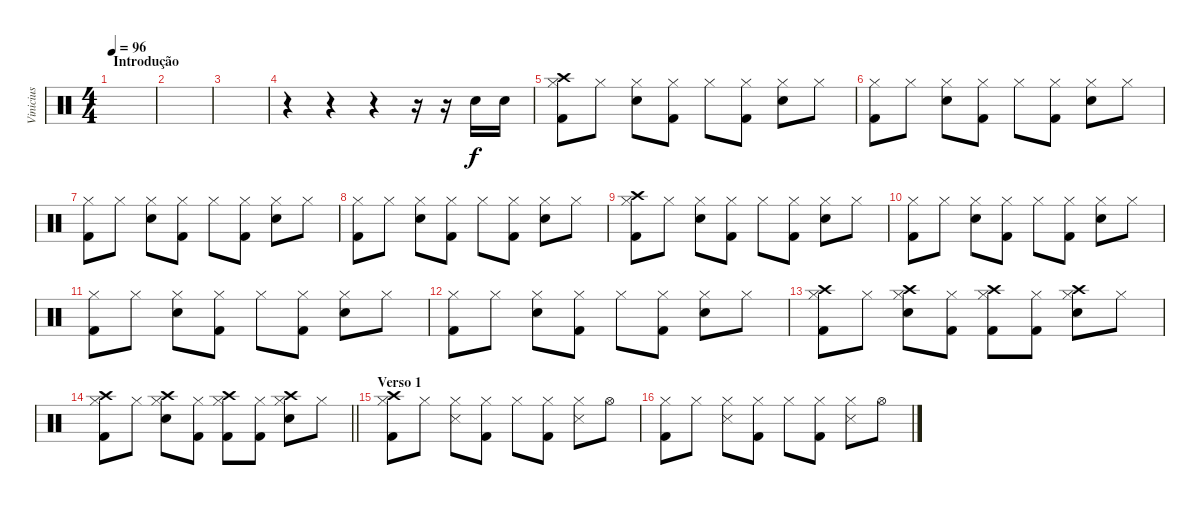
\track ("Vinicius" "Vinicius") {instrument percussion}
\staff {score}
\articulation defaults
\ts (4 4)
\section ("" "Introdução")
\tempo 96
\clef neutral
\ks c
|
|
|
r.4 r.4 r.4 r.16 r.16 "Snare (hit) 2".16 "Snare (hit) 2".16 |
("Kick (hit) 2" "Crash high (hit)" "Hi-Hat (closed)").8 "Hi-Hat (closed)".8 ("Snare (hit) 2" "Hi-Hat (closed)").8 ("Kick (hit) 2" "Hi-Hat (closed)").8 "Hi-Hat (closed)".8 ("Kick (hit) 2" "Hi-Hat (closed)").8 ("Snare (hit) 2" "Hi-Hat (closed)").8 "Hi-Hat (closed)".8 |
("Kick (hit) 2" "Hi-Hat (closed)").8 "Hi-Hat (closed)".8 ("Snare (hit) 2" "Hi-Hat (closed)").8 ("Kick (hit) 2" "Hi-Hat (closed)").8 "Hi-Hat (closed)".8 ("Kick (hit) 2" "Hi-Hat (closed)").8 ("Snare (hit) 2" "Hi-Hat (closed)").8 "Hi-Hat (closed)".8 |
("Kick (hit) 2" "Hi-Hat (closed)").8 "Hi-Hat (closed)".8 ("Snare (hit) 2" "Hi-Hat (closed)").8 ("Kick (hit) 2" "Hi-Hat (closed)").8 "Hi-Hat (closed)".8 ("Kick (hit) 2" "Hi-Hat (closed)").8 ("Snare (hit) 2" "Hi-Hat (closed)").8 "Hi-Hat (closed)".8 |
("Kick (hit) 2" "Hi-Hat (closed)").8 "Hi-Hat (closed)".8 ("Snare (hit) 2" "Hi-Hat (closed)").8 ("Kick (hit) 2" "Hi-Hat (closed)").8 "Hi-Hat (closed)".8 ("Kick (hit) 2" "Hi-Hat (closed)").8 ("Snare (hit) 2" "Hi-Hat (closed)").8 "Hi-Hat (closed)".8 |
("Kick (hit) 2" "Crash high (hit)" "Hi-Hat (closed)").8 "Hi-Hat (closed)".8 ("Snare (hit) 2" "Hi-Hat (closed)").8 ("Kick (hit) 2" "Hi-Hat (closed)").8 "Hi-Hat (closed)".8 ("Kick (hit) 2" "Hi-Hat (closed)").8 ("Snare (hit) 2" "Hi-Hat (closed)").8 "Hi-Hat (closed)".8 |
("Kick (hit) 2" "Hi-Hat (closed)").8 "Hi-Hat (closed)".8 ("Snare (hit) 2" "Hi-Hat (closed)").8 ("Kick (hit) 2" "Hi-Hat (closed)").8 "Hi-Hat (closed)".8 ("Kick (hit) 2" "Hi-Hat (closed)").8 ("Snare (hit) 2" "Hi-Hat (closed)").8 "Hi-Hat (closed)".8 |
("Kick (hit) 2" "Hi-Hat (closed)").8 "Hi-Hat (closed)".8 ("Snare (hit) 2" "Hi-Hat (closed)").8 ("Kick (hit) 2" "Hi-Hat (closed)").8 "Hi-Hat (closed)".8 ("Kick (hit) 2" "Hi-Hat (closed)").8 ("Snare (hit) 2" "Hi-Hat (closed)").8 "Hi-Hat (closed)".8 |
("Kick (hit) 2" "Hi-Hat (closed)").8 "Hi-Hat (closed)".8 ("Snare (hit) 2" "Hi-Hat (closed)").8 ("Kick (hit) 2" "Hi-Hat (closed)").8 "Hi-Hat (closed)".8 ("Kick (hit) 2" "Hi-Hat (closed)").8 ("Snare (hit) 2" "Hi-Hat (closed)").8 "Hi-Hat (closed)".8 |
("Kick (hit) 2" "Crash high (hit)" "Hi-Hat (closed)").8 "Hi-Hat (closed)".8 ("Snare (hit) 2" "Crash high (hit)" "Hi-Hat (closed)").8 ("Kick (hit) 2" "Hi-Hat (closed)").8 ("Kick (hit) 2" "Crash high (hit)" "Hi-Hat (closed)").8 ("Kick (hit) 2" "Hi-Hat (closed)").8 ("Snare (hit) 2" "Crash high (hit)" "Hi-Hat (closed)").8 "Hi-Hat (closed)".8 |
\barLineRight lightlight
("Kick (hit) 2" "Crash high (hit)" "Hi-Hat (closed)").8 "Hi-Hat (closed)".8 ("Snare (hit) 2" "Crash high (hit)" "Hi-Hat (closed)").8 ("Kick (hit) 2" "Hi-Hat (closed)").8 ("Kick (hit) 2" "Crash high (hit)" "Hi-Hat (closed)").8 ("Kick (hit) 2" "Hi-Hat (closed)").8 ("Snare (hit) 2" "Crash high (hit)" "Hi-Hat (closed)").8 "Hi-Hat (closed)".8 |
\section ("" "Verso 1")
("Kick (hit) 2" "Crash high (hit)" "Hi-Hat (closed)").8 "Hi-Hat (closed)".8 ("Snare (side stick) 3" "Hi-Hat (closed)").8 ("Kick (hit) 2" "Hi-Hat (closed)").8 "Hi-Hat (closed)".8 ("Kick (hit) 2" "Hi-Hat (closed)").8 ("Snare (side stick) 3" "Hi-Hat (closed)").8 "Hi-Hat (open)".8 |
("Kick (hit) 2" "Hi-Hat (closed)").8 "Hi-Hat (closed)".8 ("Snare (side stick) 3" "Hi-Hat (closed)").8 ("Kick (hit) 2" "Hi-Hat (closed)").8 "Hi-Hat (closed)".8 ("Kick (hit) 2" "Hi-Hat (closed)").8 ("Snare (side stick) 3" "Hi-Hat (closed)").8 "Hi-Hat (open)".8
